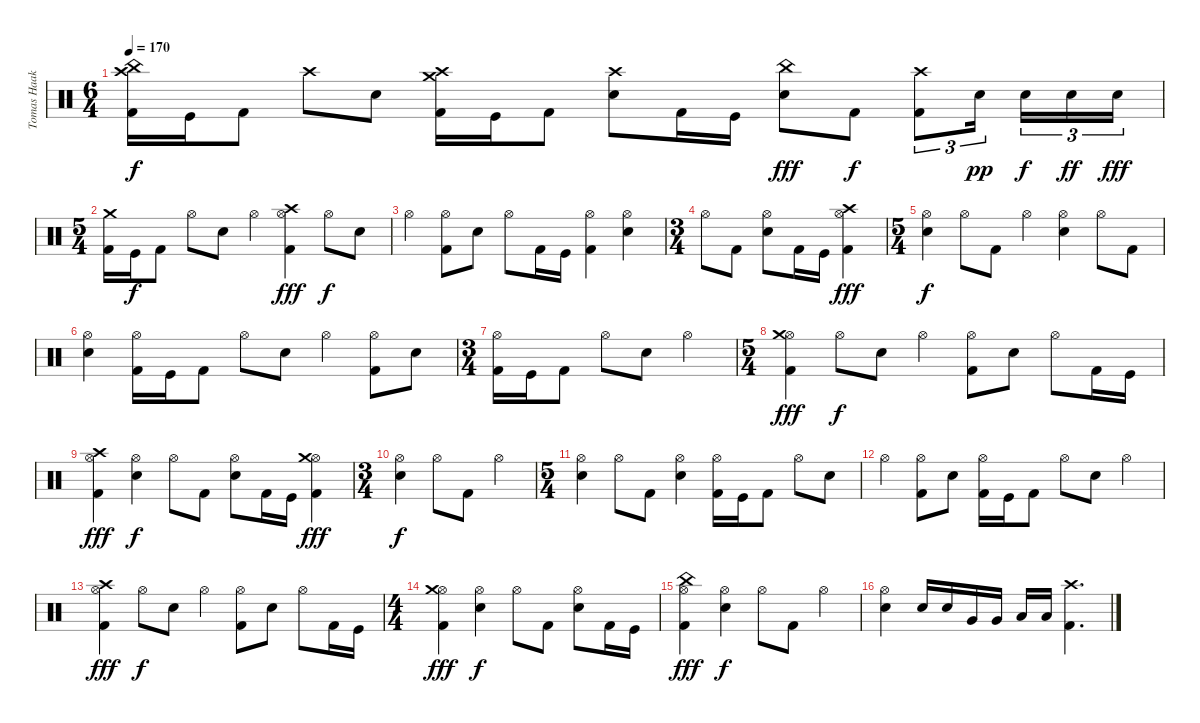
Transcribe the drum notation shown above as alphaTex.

\track ("Tomas Haake" "Tomas Haak") {instrument percussion}
\staff {score}
\articulation defaults
\ts (6 4)
\tempo 170
\clef neutral
\ks c
("Kick (hit) 2" "Crash high (hit)" "China (hit)").16{dy f} "Kick (hit)".16 "Kick (hit) 2".8 "Crash high (hit)".8 "Snare (hit) 2".8 ("Kick (hit) 2" "Crash high (hit)" "Crash medium (hit)").16 "Kick (hit)".16 "Kick (hit) 2".8 ("Snare (hit) 2" "Crash high (hit)").8 "Kick (hit) 2".16 "Kick (hit)".16 ("Snare (hit) 2" "China (hit)").8{dy fff} "Kick (hit) 2".8{dy f} ("Kick (hit) 2" "Crash high (hit)").8{tu (3 2)} "Snare (hit) 2".16{tu (3 2) dy pp beam splitsecondary} "Snare (hit) 2".16{tu (3 2) dy f beam merge} "Snare (hit) 2".16{tu (3 2) dy ff beam merge} "Snare (hit) 2".16{tu (3 2) dy fff} |
\ts (5 4)
("Kick (hit) 2" "Crash medium (hit)").16 "Kick (hit)".16{dy f} "Kick (hit) 2".8 "Hi-Hat (open)".8 "Snare (hit) 2".8 "Hi-Hat (open)".4 ("Kick (hit) 2" "Hi-Hat (open)" "Crash high (hit)").4{dy fff} "Hi-Hat (open)".8{dy f} "Snare (hit) 2".8 |
"Hi-Hat (open)".4 ("Kick (hit) 2" "Hi-Hat (open)").8 "Snare (hit) 2".8 "Hi-Hat (open)".8 "Kick (hit) 2".16 "Kick (hit)".16 ("Kick (hit) 2" "Hi-Hat (open)").4 ("Snare (hit) 2" "Hi-Hat (open)").4 |
\ts (3 4)
"Hi-Hat (open)".8 "Kick (hit) 2".8 ("Snare (hit) 2" "Hi-Hat (open)").8 "Kick (hit) 2".16 "Kick (hit)".16 ("Kick (hit) 2" "Hi-Hat (open)" "Crash high (hit)").4{dy fff} |
\ts (5 4)
("Snare (hit) 2" "Hi-Hat (open)").4{dy f} "Hi-Hat (open)".8 "Kick (hit) 2".8 "Hi-Hat (open)".4 ("Snare (hit) 2" "Hi-Hat (open)").4 "Hi-Hat (open)".8 "Kick (hit) 2".8 |
("Snare (hit) 2" "Hi-Hat (open)").4 ("Kick (hit) 2" "Hi-Hat (open)").16 "Kick (hit)".16 "Kick (hit) 2".8 "Hi-Hat (open)".8 "Snare (hit) 2".8 "Hi-Hat (open)".4 ("Kick (hit) 2" "Hi-Hat (open)").8 "Snare (hit) 2".8 |
\ts (3 4)
("Kick (hit) 2" "Hi-Hat (open)").16 "Kick (hit)".16 "Kick (hit) 2".8 "Hi-Hat (open)".8 "Snare (hit) 2".8 "Hi-Hat (open)".4 |
\ts (5 4)
("Kick (hit) 2" "Hi-Hat (open)" "Crash medium (hit)").4{dy fff} "Hi-Hat (open)".8{dy f} "Snare (hit) 2".8 "Hi-Hat (open)".4 ("Kick (hit) 2" "Hi-Hat (open)").8 "Snare (hit) 2".8 "Hi-Hat (open)".8 "Kick (hit) 2".16 "Kick (hit)".16 |
("Kick (hit) 2" "Hi-Hat (open)" "Crash high (hit)").4{dy fff} ("Snare (hit) 2" "Hi-Hat (open)").4{dy f} "Hi-Hat (open)".8 "Kick (hit) 2".8 ("Snare (hit) 2" "Hi-Hat (open)").8 "Kick (hit) 2".16 "Kick (hit)".16 ("Kick (hit) 2" "Hi-Hat (open)" "Crash medium (hit)").4{dy fff} |
\ts (3 4)
("Snare (hit) 2" "Hi-Hat (open)").4{dy f} "Hi-Hat (open)".8 "Kick (hit) 2".8 "Hi-Hat (open)".4 |
\ts (5 4)
("Snare (hit) 2" "Hi-Hat (open)").4 "Hi-Hat (open)".8 "Kick (hit) 2".8 ("Snare (hit) 2" "Hi-Hat (open)").4 ("Kick (hit) 2" "Hi-Hat (open)").16 "Kick (hit)".16 "Kick (hit) 2".8 "Hi-Hat (open)".8 "Snare (hit) 2".8 |
"Hi-Hat (open)".4 ("Kick (hit) 2" "Hi-Hat (open)").8 "Snare (hit) 2".8 ("Kick (hit) 2" "Hi-Hat (open)").16 "Kick (hit)".16 "Kick (hit) 2".8 "Hi-Hat (open)".8 "Snare (hit) 2".8 "Hi-Hat (open)".4 |
("Kick (hit) 2" "Hi-Hat (open)" "Crash high (hit)").4{dy fff} "Hi-Hat (open)".8{dy f} "Snare (hit) 2".8 "Hi-Hat (open)".4 ("Kick (hit) 2" "Hi-Hat (open)").8 "Snare (hit) 2".8 "Hi-Hat (open)".8 "Kick (hit) 2".16 "Kick (hit)".16 |
\ts (4 4)
("Kick (hit) 2" "Hi-Hat (open)" "Crash medium (hit)").4{dy fff} ("Snare (hit) 2" "Hi-Hat (open)").4{dy f} "Hi-Hat (open)".8 "Kick (hit) 2".8 ("Snare (hit) 2" "Hi-Hat (open)").8 "Kick (hit) 2".16 "Kick (hit)".16 |
("Kick (hit) 2" "Hi-Hat (open)" "China (hit)").4{dy fff} ("Snare (hit) 2" "Hi-Hat (open)").4{dy f} "Hi-Hat (open)".8 "Kick (hit) 2".8 "Hi-Hat (open)".4 |
("Snare (hit) 2" "Hi-Hat (open)").4 "Snare (hit) 2".16 "Snare (hit) 2".16 "Very Low Tom (hit)".16 "Very Low Tom (hit)".16 "Low Tom (hit)".16 "Low Tom (hit)".16 ("Kick (hit) 2" "Crash high (hit)").4{d}
